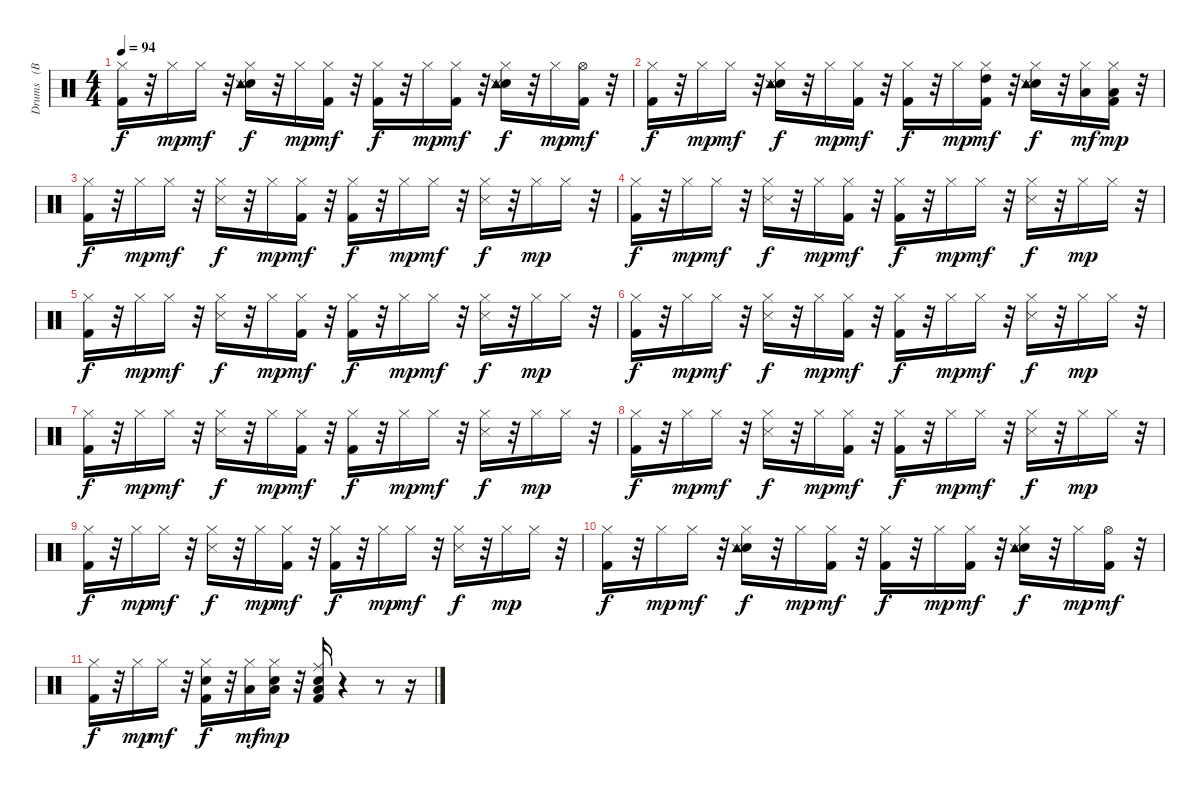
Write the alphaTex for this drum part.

\track ("Drums   (BB)" "Drums   (B") {instrument percussion}
\staff {score}
\articulation defaults
\ts (4 4)
\tempo 94
\clef neutral
\ks c
("Kick (hit) 2" "Hi-Hat (closed)").16{dy f} r.32 "Hi-Hat (closed)".16{dy mp} "Hi-Hat (closed)".16{dy mf} r.32 ("Snare (hit) 2" "Hi-Hat (closed)" "Snare (side stick) 3" "Tambourine (hit)").16{dy f} r.32 "Hi-Hat (closed)".16{dy mp} ("Kick (hit) 2" "Hi-Hat (closed)").16{dy mf} r.32 ("Kick (hit) 2" "Hi-Hat (closed)").16{dy f} r.32 "Hi-Hat (closed)".16{dy mp} ("Kick (hit) 2" "Hi-Hat (closed)").16{dy mf} r.32 ("Snare (hit) 2" "Hi-Hat (closed)" "Snare (side stick) 3" "Tambourine (hit)").16{dy f} r.32 "Hi-Hat (closed)".16{dy mp} ("Kick (hit) 2" "Hi-Hat (open)").16{dy mf} r.32 |
("Kick (hit) 2" "Hi-Hat (closed)").16{dy f} r.32 "Hi-Hat (closed)".16{dy mp} "Hi-Hat (closed)".16{dy mf} r.32 ("Snare (hit) 2" "Hi-Hat (closed)" "Snare (side stick) 3" "Tambourine (hit)").16{dy f} r.32 "Hi-Hat (closed)".16{dy mp} ("Kick (hit) 2" "Hi-Hat (closed)").16{dy mf} r.32 ("Kick (hit) 2" "Hi-Hat (closed)").16{dy f} r.32 "Hi-Hat (closed)".16{dy mp} ("Kick (hit) 2" "Hi-Hat (closed)" "High Tom (hit)").16{dy mf} r.32 ("Snare (hit) 2" "Hi-Hat (closed)" "Snare (side stick) 3" "Tambourine (hit)").16{dy f} r.32 ("Hi-Hat (closed)" "Low Tom (hit)").16{dy mf} ("Kick (hit) 2" "Hi-Hat (closed)" "Low Tom (hit)").16{dy mp} r.32 |
("Kick (hit) 2" "Hi-Hat (closed)").16{dy f} r.32 "Hi-Hat (closed)".16{dy mp} "Hi-Hat (closed)".16{dy mf} r.32 ("Hi-Hat (closed)" "Snare (side stick) 3").16{dy f} r.32 "Hi-Hat (closed)".16{dy mp} ("Kick (hit) 2" "Hi-Hat (closed)").16{dy mf} r.32 ("Kick (hit) 2" "Hi-Hat (closed)").16{dy f} r.32 "Hi-Hat (closed)".16{dy mp} "Hi-Hat (closed)".16{dy mf} r.32 ("Hi-Hat (closed)" "Snare (side stick) 3").16{dy f} r.32 "Hi-Hat (closed)".16{dy mp} "Hi-Hat (closed)".16 r.32 |
("Kick (hit) 2" "Hi-Hat (closed)").16{dy f} r.32 "Hi-Hat (closed)".16{dy mp} "Hi-Hat (closed)".16{dy mf} r.32 ("Hi-Hat (closed)" "Snare (side stick) 3").16{dy f} r.32 "Hi-Hat (closed)".16{dy mp} ("Kick (hit) 2" "Hi-Hat (closed)").16{dy mf} r.32 ("Kick (hit) 2" "Hi-Hat (closed)").16{dy f} r.32 "Hi-Hat (closed)".16{dy mp} "Hi-Hat (closed)".16{dy mf} r.32 ("Hi-Hat (closed)" "Snare (side stick) 3").16{dy f} r.32 "Hi-Hat (closed)".16{dy mp} "Hi-Hat (closed)".16 r.32 |
("Kick (hit) 2" "Hi-Hat (closed)").16{dy f} r.32 "Hi-Hat (closed)".16{dy mp} "Hi-Hat (closed)".16{dy mf} r.32 ("Hi-Hat (closed)" "Snare (side stick) 3").16{dy f} r.32 "Hi-Hat (closed)".16{dy mp} ("Kick (hit) 2" "Hi-Hat (closed)").16{dy mf} r.32 ("Kick (hit) 2" "Hi-Hat (closed)").16{dy f} r.32 "Hi-Hat (closed)".16{dy mp} "Hi-Hat (closed)".16{dy mf} r.32 ("Hi-Hat (closed)" "Snare (side stick) 3").16{dy f} r.32 "Hi-Hat (closed)".16{dy mp} "Hi-Hat (closed)".16 r.32 |
("Kick (hit) 2" "Hi-Hat (closed)").16{dy f} r.32 "Hi-Hat (closed)".16{dy mp} "Hi-Hat (closed)".16{dy mf} r.32 ("Hi-Hat (closed)" "Snare (side stick) 3").16{dy f} r.32 "Hi-Hat (closed)".16{dy mp} ("Kick (hit) 2" "Hi-Hat (closed)").16{dy mf} r.32 ("Kick (hit) 2" "Hi-Hat (closed)").16{dy f} r.32 "Hi-Hat (closed)".16{dy mp} "Hi-Hat (closed)".16{dy mf} r.32 ("Hi-Hat (closed)" "Snare (side stick) 3").16{dy f} r.32 "Hi-Hat (closed)".16{dy mp} "Hi-Hat (closed)".16 r.32 |
("Kick (hit) 2" "Hi-Hat (closed)").16{dy f} r.32 "Hi-Hat (closed)".16{dy mp} "Hi-Hat (closed)".16{dy mf} r.32 ("Hi-Hat (closed)" "Snare (side stick) 3").16{dy f} r.32 "Hi-Hat (closed)".16{dy mp} ("Kick (hit) 2" "Hi-Hat (closed)").16{dy mf} r.32 ("Kick (hit) 2" "Hi-Hat (closed)").16{dy f} r.32 "Hi-Hat (closed)".16{dy mp} "Hi-Hat (closed)".16{dy mf} r.32 ("Hi-Hat (closed)" "Snare (side stick) 3").16{dy f} r.32 "Hi-Hat (closed)".16{dy mp} "Hi-Hat (closed)".16 r.32 |
("Kick (hit) 2" "Hi-Hat (closed)").16{dy f} r.32 "Hi-Hat (closed)".16{dy mp} "Hi-Hat (closed)".16{dy mf} r.32 ("Hi-Hat (closed)" "Snare (side stick) 3").16{dy f} r.32 "Hi-Hat (closed)".16{dy mp} ("Kick (hit) 2" "Hi-Hat (closed)").16{dy mf} r.32 ("Kick (hit) 2" "Hi-Hat (closed)").16{dy f} r.32 "Hi-Hat (closed)".16{dy mp} "Hi-Hat (closed)".16{dy mf} r.32 ("Hi-Hat (closed)" "Snare (side stick) 3").16{dy f} r.32 "Hi-Hat (closed)".16{dy mp} "Hi-Hat (closed)".16 r.32 |
("Kick (hit) 2" "Hi-Hat (closed)").16{dy f} r.32 "Hi-Hat (closed)".16{dy mp} "Hi-Hat (closed)".16{dy mf} r.32 ("Hi-Hat (closed)" "Snare (side stick) 3").16{dy f} r.32 "Hi-Hat (closed)".16{dy mp} ("Kick (hit) 2" "Hi-Hat (closed)").16{dy mf} r.32 ("Kick (hit) 2" "Hi-Hat (closed)").16{dy f} r.32 "Hi-Hat (closed)".16{dy mp} "Hi-Hat (closed)".16{dy mf} r.32 ("Hi-Hat (closed)" "Snare (side stick) 3").16{dy f} r.32 "Hi-Hat (closed)".16{dy mp} "Hi-Hat (closed)".16 r.32 |
("Kick (hit) 2" "Hi-Hat (closed)").16{dy f} r.32 "Hi-Hat (closed)".16{dy mp} "Hi-Hat (closed)".16{dy mf} r.32 ("Snare (hit) 2" "Hi-Hat (closed)" "Snare (side stick) 3" "Tambourine (hit)").16{dy f} r.32 "Hi-Hat (closed)".16{dy mp} ("Kick (hit) 2" "Hi-Hat (closed)").16{dy mf} r.32 ("Kick (hit) 2" "Hi-Hat (closed)").16{dy f} r.32 "Hi-Hat (closed)".16{dy mp} ("Kick (hit) 2" "Hi-Hat (closed)").16{dy mf} r.32 ("Snare (hit) 2" "Hi-Hat (closed)" "Snare (side stick) 3" "Tambourine (hit)").16{dy f} r.32 "Hi-Hat (closed)".16{dy mp} ("Kick (hit) 2" "Hi-Hat (open)").16{dy mf} r.32 |
("Kick (hit) 2" "Hi-Hat (closed)").16{dy f} r.32 "Hi-Hat (closed)".16{dy mp} "Hi-Hat (closed)".16{dy mf} r.32 ("Kick (hit) 2" "Snare (hit) 2" "Hi-Hat (closed)").16{dy f} r.32 ("Hi-Hat (closed)" "Low Tom (hit)").16{dy mf} ("Snare (hit) 2" "Hi-Hat (closed)" "Low Tom (hit)").16{dy mp} r.32 ("Kick (hit) 2" "Snare (hit) 2" "Ride (middle)" "Low Floor Tom (hit)").16 r.4 r.8 r.16
